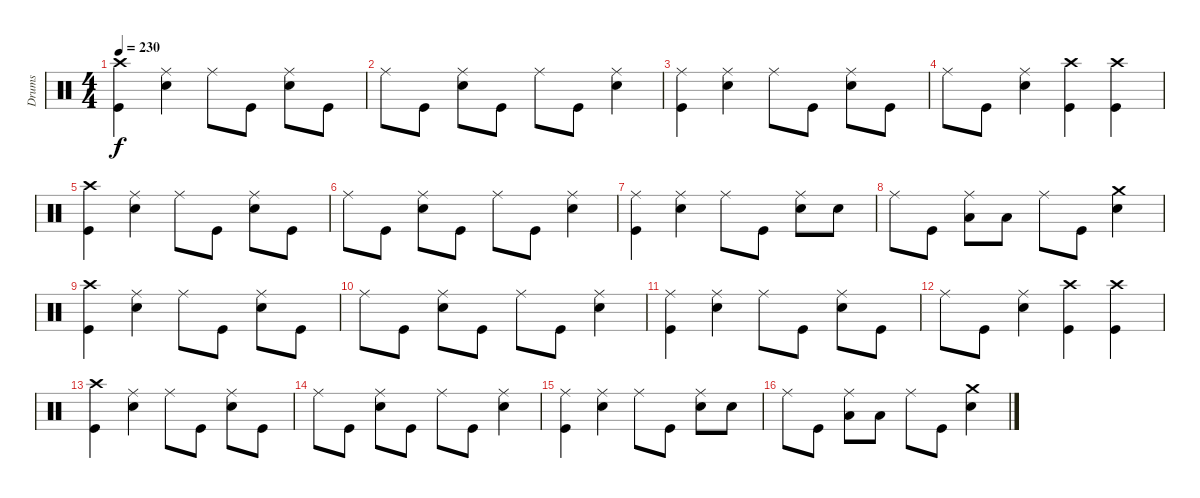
\track ("Drums" "Drums") {instrument percussion}
\staff {score}
\articulation defaults
\ts (4 4)
\tempo 230
\clef neutral
\ks c
("Crash high (hit)" "Kick (hit)").4{dy f} ("Ride (middle)" "Electric Snare (hit)").4 "Ride (middle)".8 "Kick (hit)".8 ("Ride (middle)" "Electric Snare (hit)").8 "Kick (hit)".8 |
"Ride (middle)".8 "Kick (hit)".8 ("Ride (middle)" "Electric Snare (hit)").8 "Kick (hit)".8 "Ride (middle)".8 "Kick (hit)".8 ("Ride (middle)" "Electric Snare (hit)").4 |
("Ride (middle)" "Kick (hit)").4 ("Ride (middle)" "Electric Snare (hit)").4 "Ride (middle)".8 "Kick (hit)".8 ("Ride (middle)" "Electric Snare (hit)").8 "Kick (hit)".8 |
"Ride (middle)".8 "Kick (hit)".8 ("Ride (middle)" "Electric Snare (hit)").4 ("Crash high (hit)" "Kick (hit)").4 ("Crash high (hit)" "Kick (hit)").4 |
("Crash high (hit)" "Kick (hit)").4 ("Ride (middle)" "Electric Snare (hit)").4 "Ride (middle)".8 "Kick (hit)".8 ("Ride (middle)" "Electric Snare (hit)").8 "Kick (hit)".8 |
"Ride (middle)".8 "Kick (hit)".8 ("Ride (middle)" "Electric Snare (hit)").8 "Kick (hit)".8 "Ride (middle)".8 "Kick (hit)".8 ("Ride (middle)" "Electric Snare (hit)").4 |
("Ride (middle)" "Kick (hit)").4 ("Ride (middle)" "Electric Snare (hit)").4 "Ride (middle)".8 "Kick (hit)".8 ("Ride (middle)" "Electric Snare (hit)").8 "Electric Snare (hit)".8 |
"Ride (middle)".8 "Kick (hit)".8 ("Ride (middle)" "Low Tom (hit)").8 "Low Tom (hit)".8 "Ride (middle)".8 "Kick (hit)".8 ("Crash medium (hit)" "Electric Snare (hit)").4 |
("Crash high (hit)" "Kick (hit)").4 ("Ride (middle)" "Electric Snare (hit)").4 "Ride (middle)".8 "Kick (hit)".8 ("Ride (middle)" "Electric Snare (hit)").8 "Kick (hit)".8 |
"Ride (middle)".8 "Kick (hit)".8 ("Ride (middle)" "Electric Snare (hit)").8 "Kick (hit)".8 "Ride (middle)".8 "Kick (hit)".8 ("Ride (middle)" "Electric Snare (hit)").4 |
("Ride (middle)" "Kick (hit)").4 ("Ride (middle)" "Electric Snare (hit)").4 "Ride (middle)".8 "Kick (hit)".8 ("Ride (middle)" "Electric Snare (hit)").8 "Kick (hit)".8 |
"Ride (middle)".8 "Kick (hit)".8 ("Ride (middle)" "Electric Snare (hit)").4 ("Crash high (hit)" "Kick (hit)").4 ("Crash high (hit)" "Kick (hit)").4 |
("Crash high (hit)" "Kick (hit)").4 ("Ride (middle)" "Electric Snare (hit)").4 "Ride (middle)".8 "Kick (hit)".8 ("Ride (middle)" "Electric Snare (hit)").8 "Kick (hit)".8 |
"Ride (middle)".8 "Kick (hit)".8 ("Ride (middle)" "Electric Snare (hit)").8 "Kick (hit)".8 "Ride (middle)".8 "Kick (hit)".8 ("Ride (middle)" "Electric Snare (hit)").4 |
("Ride (middle)" "Kick (hit)").4 ("Ride (middle)" "Electric Snare (hit)").4 "Ride (middle)".8 "Kick (hit)".8 ("Ride (middle)" "Electric Snare (hit)").8 "Electric Snare (hit)".8 |
"Ride (middle)".8 "Kick (hit)".8 ("Ride (middle)" "Low Tom (hit)").8 "Low Tom (hit)".8 "Ride (middle)".8 "Kick (hit)".8 ("Crash medium (hit)" "Electric Snare (hit)").4
